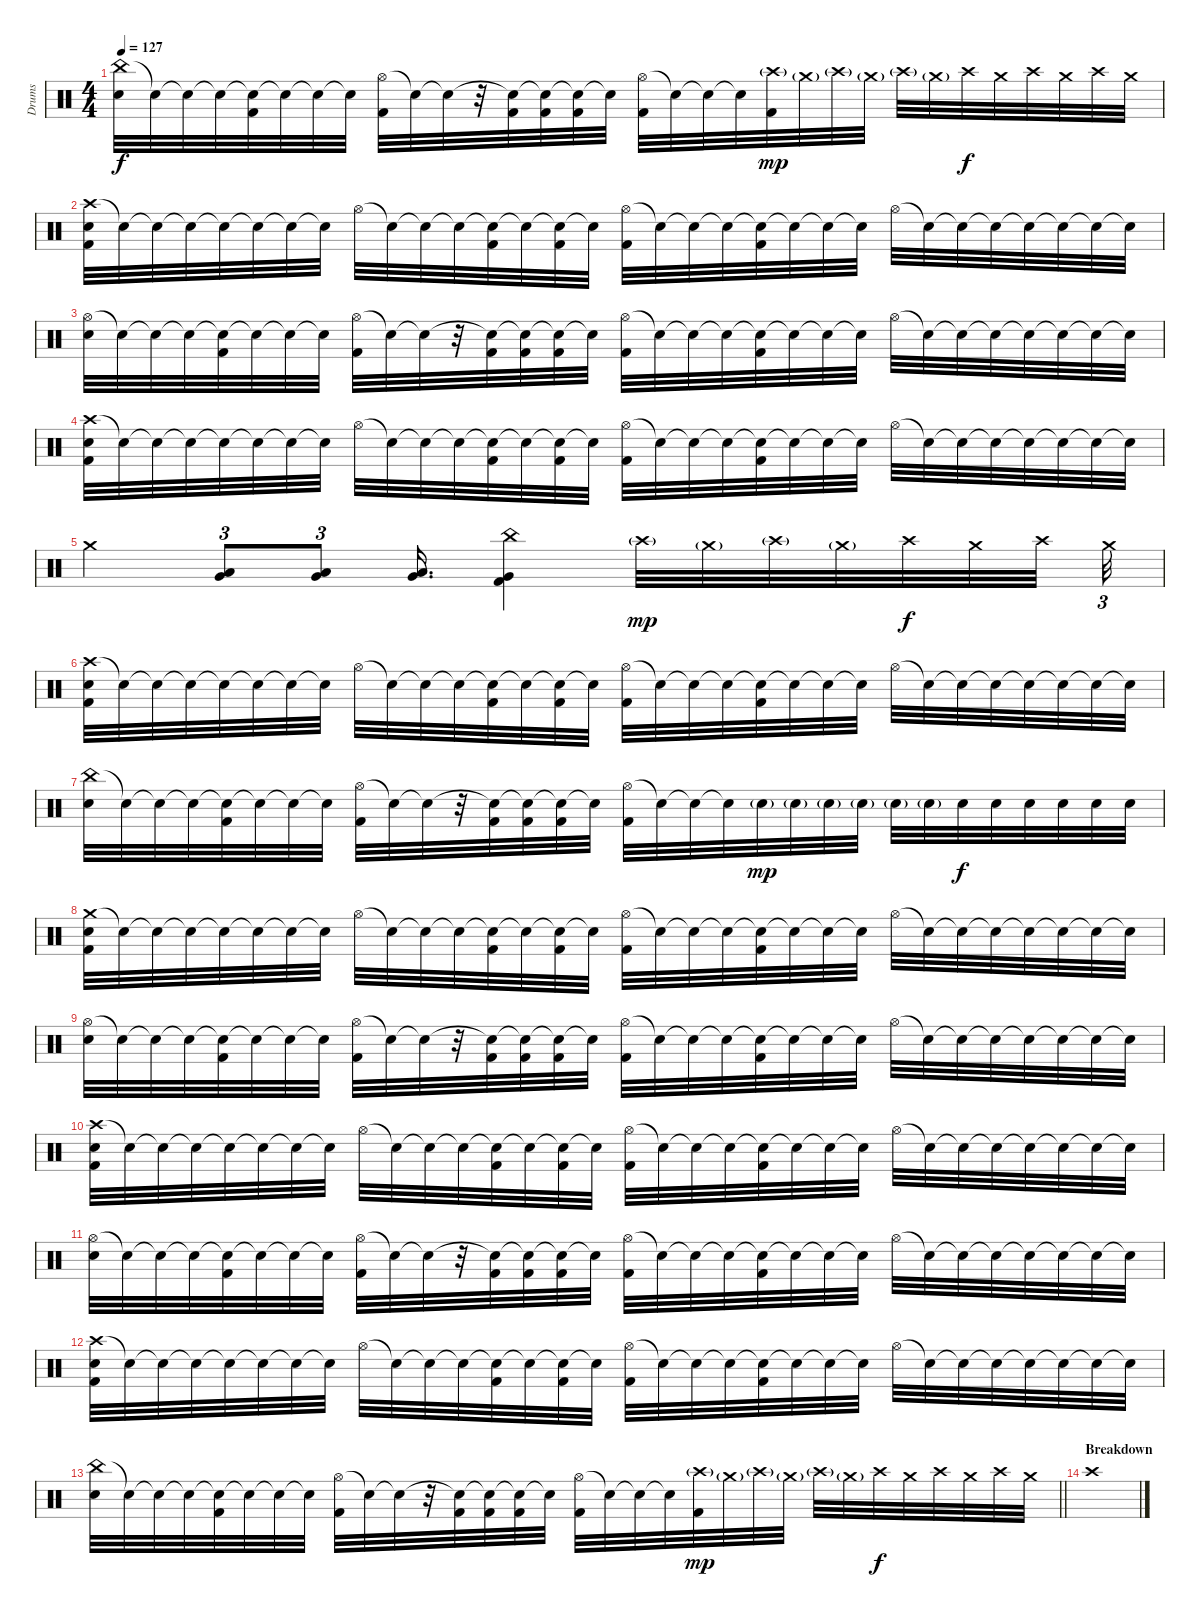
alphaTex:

\track ("Drums" "Drums") {instrument percussion}
\staff {score}
\articulation defaults
\ts (4 4)
\tempo 127
\clef neutral
\ks c
("China (hit)" "Snare (hit) 2").32{dy f} "Snare (hit)"{t}.32 "Snare (hit)"{t}.32 "Snare (hit)"{t}.32 ("Snare (hit)"{t} "Kick (hit) 2").32 "Snare (hit)"{t}.32 "Snare (hit)"{t}.32 "Snare (hit)"{t}.32 ("Hi-Hat (open)" "Kick (hit) 2").32 "Snare (hit)"{t}.32 "Snare (hit)"{t}.32 r.32 ("Snare (hit)"{t} "Kick (hit) 2").32 ("Snare (hit)"{t} "Kick (hit) 2").32 ("Snare (hit)"{t} "Kick (hit) 2").32 "Snare (hit)"{t}.32 ("Hi-Hat (open)" "Kick (hit) 2").32 "Snare (hit)"{t}.32 "Snare (hit)"{t}.32 "Snare (hit)"{t}.32 ("Crash high (hit)"{g} "Kick (hit) 2").32{dy mp} "Crash medium (hit)"{g}.32 "Crash high (hit)"{g}.32 "Crash medium (hit)"{g}.32 "Crash high (hit)"{g}.32 "Crash medium (hit)"{g}.32 "Crash high (hit)".32{dy f} "Crash medium (hit)".32 "Crash high (hit)".32 "Crash medium (hit)".32 "Crash high (hit)".32 "Crash medium (hit)".32 |
("Crash high (hit)" "Snare (hit) 2" "Kick (hit) 2").32 "Snare (hit)"{t}.32 "Snare (hit)"{t}.32 "Snare (hit)"{t}.32 "Snare (hit)"{t}.32 "Snare (hit)"{t}.32 "Snare (hit)"{t}.32 "Snare (hit)"{t}.32 "Hi-Hat (open)".32 "Snare (hit)"{t}.32 "Snare (hit)"{t}.32 "Snare (hit)"{t}.32 ("Snare (hit)"{t} "Kick (hit) 2").32 "Snare (hit)"{t}.32 ("Snare (hit)"{t} "Kick (hit) 2").32 "Snare (hit)"{t}.32 ("Hi-Hat (open)" "Kick (hit) 2").32 "Snare (hit)"{t}.32 "Snare (hit)"{t}.32 "Snare (hit)"{t}.32 ("Snare (hit)"{t} "Kick (hit) 2").32 "Snare (hit)"{t}.32 "Snare (hit)"{t}.32 "Snare (hit)"{t}.32 "Hi-Hat (open)".32 "Snare (hit)"{t}.32 "Snare (hit)"{t}.32 "Snare (hit)"{t}.32 "Snare (hit)"{t}.32 "Snare (hit)"{t}.32 "Snare (hit)"{t}.32 "Snare (hit)"{t}.32 |
("Hi-Hat (open)" "Snare (hit) 2").32 "Snare (hit)"{t}.32 "Snare (hit)"{t}.32 "Snare (hit)"{t}.32 ("Snare (hit)"{t} "Kick (hit) 2").32 "Snare (hit)"{t}.32 "Snare (hit)"{t}.32 "Snare (hit)"{t}.32 ("Hi-Hat (open)" "Kick (hit) 2").32 "Snare (hit)"{t}.32 "Snare (hit)"{t}.32 r.32 ("Snare (hit)"{t} "Kick (hit) 2").32 ("Snare (hit)"{t} "Kick (hit) 2").32 ("Snare (hit)"{t} "Kick (hit) 2").32 "Snare (hit)"{t}.32 ("Hi-Hat (open)" "Kick (hit) 2").32 "Snare (hit)"{t}.32 "Snare (hit)"{t}.32 "Snare (hit)"{t}.32 ("Snare (hit)"{t} "Kick (hit) 2").32 "Snare (hit)"{t}.32 "Snare (hit)"{t}.32 "Snare (hit)"{t}.32 "Hi-Hat (open)".32 "Snare (hit)"{t}.32 "Snare (hit)"{t}.32 "Snare (hit)"{t}.32 "Snare (hit)"{t}.32 "Snare (hit)"{t}.32 "Snare (hit)"{t}.32 "Snare (hit)"{t}.32 |
("Crash high (hit)" "Snare (hit) 2" "Kick (hit) 2").32 "Snare (hit)"{t}.32 "Snare (hit)"{t}.32 "Snare (hit)"{t}.32 "Snare (hit)"{t}.32 "Snare (hit)"{t}.32 "Snare (hit)"{t}.32 "Snare (hit)"{t}.32 "Hi-Hat (open)".32 "Snare (hit)"{t}.32 "Snare (hit)"{t}.32 "Snare (hit)"{t}.32 ("Snare (hit)"{t} "Kick (hit) 2").32 "Snare (hit)"{t}.32 ("Snare (hit)"{t} "Kick (hit) 2").32 "Snare (hit)"{t}.32 ("Hi-Hat (open)" "Kick (hit) 2").32 "Snare (hit)"{t}.32 "Snare (hit)"{t}.32 "Snare (hit)"{t}.32 ("Snare (hit)"{t} "Kick (hit) 2").32 "Snare (hit)"{t}.32 "Snare (hit)"{t}.32 "Snare (hit)"{t}.32 "Hi-Hat (open)".32 "Snare (hit)"{t}.32 "Snare (hit)"{t}.32 "Snare (hit)"{t}.32 "Snare (hit)"{t}.32 "Snare (hit)"{t}.32 "Snare (hit)"{t}.32 "Snare (hit)"{t}.32 |
"Crash medium (hit)".4 ("Low Tom (hit)" "Very Low Tom (hit)").8{tu (3 2)} ("Low Tom (hit)" "Very Low Tom (hit)").8{tu (3 2)} ("Low Tom (hit)" "Very Low Tom (hit)").16{d} ("China (hit)" "Very Low Tom (hit)" "Kick (hit) 2").4 "Crash high (hit)"{g}.32{dy mp} "Crash medium (hit)"{g}.32 "Crash high (hit)"{g}.32 "Crash medium (hit)"{g}.32 "Crash high (hit)".32{dy f} "Crash medium (hit)".32 "Crash high (hit)".32{beam splitsecondary} "Crash medium (hit)".32{tu (3 2)} |
("Crash high (hit)" "Snare (hit) 2" "Kick (hit) 2").32 "Snare (hit)"{t}.32 "Snare (hit)"{t}.32 "Snare (hit)"{t}.32 "Snare (hit)"{t}.32 "Snare (hit)"{t}.32 "Snare (hit)"{t}.32 "Snare (hit)"{t}.32 "Hi-Hat (open)".32 "Snare (hit)"{t}.32 "Snare (hit)"{t}.32 "Snare (hit)"{t}.32 ("Snare (hit)"{t} "Kick (hit) 2").32 "Snare (hit)"{t}.32 ("Snare (hit)"{t} "Kick (hit) 2").32 "Snare (hit)"{t}.32 ("Hi-Hat (open)" "Kick (hit) 2").32 "Snare (hit)"{t}.32 "Snare (hit)"{t}.32 "Snare (hit)"{t}.32 ("Snare (hit)"{t} "Kick (hit) 2").32 "Snare (hit)"{t}.32 "Snare (hit)"{t}.32 "Snare (hit)"{t}.32 "Hi-Hat (open)".32 "Snare (hit)"{t}.32 "Snare (hit)"{t}.32 "Snare (hit)"{t}.32 "Snare (hit)"{t}.32 "Snare (hit)"{t}.32 "Snare (hit)"{t}.32 "Snare (hit)"{t}.32 |
("China (hit)" "Snare (hit) 2").32 "Snare (hit)"{t}.32 "Snare (hit)"{t}.32 "Snare (hit)"{t}.32 ("Snare (hit)"{t} "Kick (hit) 2").32 "Snare (hit)"{t}.32 "Snare (hit)"{t}.32 "Snare (hit)"{t}.32 ("Hi-Hat (open)" "Kick (hit) 2").32 "Snare (hit)"{t}.32 "Snare (hit)"{t}.32 r.32 ("Snare (hit)"{t} "Kick (hit) 2").32 ("Snare (hit)"{t} "Kick (hit) 2").32 ("Snare (hit)"{t} "Kick (hit) 2").32 "Snare (hit)"{t}.32 ("Hi-Hat (open)" "Kick (hit) 2").32 "Snare (hit)"{t}.32 "Snare (hit)"{t}.32 "Snare (hit)"{t}.32 "Snare (hit) 2"{g}.32{dy mp} "Snare (hit) 2"{g}.32 "Snare (hit) 2"{g}.32 "Snare (hit) 2"{g}.32 "Snare (hit) 2"{g}.32 "Snare (hit) 2"{g}.32 "Snare (hit) 2".32{dy f} "Snare (hit) 2".32 "Snare (hit) 2".32 "Snare (hit) 2".32 "Snare (hit) 2".32 "Snare (hit) 2".32 |
("Crash medium (hit)" "Snare (hit) 2" "Kick (hit) 2").32 "Snare (hit)"{t}.32 "Snare (hit)"{t}.32 "Snare (hit)"{t}.32 "Snare (hit)"{t}.32 "Snare (hit)"{t}.32 "Snare (hit)"{t}.32 "Snare (hit)"{t}.32 "Hi-Hat (open)".32 "Snare (hit)"{t}.32 "Snare (hit)"{t}.32 "Snare (hit)"{t}.32 ("Snare (hit)"{t} "Kick (hit) 2").32 "Snare (hit)"{t}.32 ("Snare (hit)"{t} "Kick (hit) 2").32 "Snare (hit)"{t}.32 ("Hi-Hat (open)" "Kick (hit) 2").32 "Snare (hit)"{t}.32 "Snare (hit)"{t}.32 "Snare (hit)"{t}.32 ("Snare (hit)"{t} "Kick (hit) 2").32 "Snare (hit)"{t}.32 "Snare (hit)"{t}.32 "Snare (hit)"{t}.32 "Hi-Hat (open)".32 "Snare (hit)"{t}.32 "Snare (hit)"{t}.32 "Snare (hit)"{t}.32 "Snare (hit)"{t}.32 "Snare (hit)"{t}.32 "Snare (hit)"{t}.32 "Snare (hit)"{t}.32 |
("Hi-Hat (open)" "Snare (hit) 2").32 "Snare (hit)"{t}.32 "Snare (hit)"{t}.32 "Snare (hit)"{t}.32 ("Snare (hit)"{t} "Kick (hit) 2").32 "Snare (hit)"{t}.32 "Snare (hit)"{t}.32 "Snare (hit)"{t}.32 ("Hi-Hat (open)" "Kick (hit) 2").32 "Snare (hit)"{t}.32 "Snare (hit)"{t}.32 r.32 ("Snare (hit)"{t} "Kick (hit) 2").32 ("Snare (hit)"{t} "Kick (hit) 2").32 ("Snare (hit)"{t} "Kick (hit) 2").32 "Snare (hit)"{t}.32 ("Hi-Hat (open)" "Kick (hit) 2").32 "Snare (hit)"{t}.32 "Snare (hit)"{t}.32 "Snare (hit)"{t}.32 ("Snare (hit)"{t} "Kick (hit) 2").32 "Snare (hit)"{t}.32 "Snare (hit)"{t}.32 "Snare (hit)"{t}.32 "Hi-Hat (open)".32 "Snare (hit)"{t}.32 "Snare (hit)"{t}.32 "Snare (hit)"{t}.32 "Snare (hit)"{t}.32 "Snare (hit)"{t}.32 "Snare (hit)"{t}.32 "Snare (hit)"{t}.32 |
("Crash high (hit)" "Snare (hit) 2" "Kick (hit) 2").32 "Snare (hit)"{t}.32 "Snare (hit)"{t}.32 "Snare (hit)"{t}.32 "Snare (hit)"{t}.32 "Snare (hit)"{t}.32 "Snare (hit)"{t}.32 "Snare (hit)"{t}.32 "Hi-Hat (open)".32 "Snare (hit)"{t}.32 "Snare (hit)"{t}.32 "Snare (hit)"{t}.32 ("Snare (hit)"{t} "Kick (hit) 2").32 "Snare (hit)"{t}.32 ("Snare (hit)"{t} "Kick (hit) 2").32 "Snare (hit)"{t}.32 ("Hi-Hat (open)" "Kick (hit) 2").32 "Snare (hit)"{t}.32 "Snare (hit)"{t}.32 "Snare (hit)"{t}.32 ("Snare (hit)"{t} "Kick (hit) 2").32 "Snare (hit)"{t}.32 "Snare (hit)"{t}.32 "Snare (hit)"{t}.32 "Hi-Hat (open)".32 "Snare (hit)"{t}.32 "Snare (hit)"{t}.32 "Snare (hit)"{t}.32 "Snare (hit)"{t}.32 "Snare (hit)"{t}.32 "Snare (hit)"{t}.32 "Snare (hit)"{t}.32 |
("Hi-Hat (open)" "Snare (hit) 2").32 "Snare (hit)"{t}.32 "Snare (hit)"{t}.32 "Snare (hit)"{t}.32 ("Snare (hit)"{t} "Kick (hit) 2").32 "Snare (hit)"{t}.32 "Snare (hit)"{t}.32 "Snare (hit)"{t}.32 ("Hi-Hat (open)" "Kick (hit) 2").32 "Snare (hit)"{t}.32 "Snare (hit)"{t}.32 r.32 ("Snare (hit)"{t} "Kick (hit) 2").32 ("Snare (hit)"{t} "Kick (hit) 2").32 ("Snare (hit)"{t} "Kick (hit) 2").32 "Snare (hit)"{t}.32 ("Hi-Hat (open)" "Kick (hit) 2").32 "Snare (hit)"{t}.32 "Snare (hit)"{t}.32 "Snare (hit)"{t}.32 ("Snare (hit)"{t} "Kick (hit) 2").32 "Snare (hit)"{t}.32 "Snare (hit)"{t}.32 "Snare (hit)"{t}.32 "Hi-Hat (open)".32 "Snare (hit)"{t}.32 "Snare (hit)"{t}.32 "Snare (hit)"{t}.32 "Snare (hit)"{t}.32 "Snare (hit)"{t}.32 "Snare (hit)"{t}.32 "Snare (hit)"{t}.32 |
("Crash high (hit)" "Snare (hit) 2" "Kick (hit) 2").32 "Snare (hit)"{t}.32 "Snare (hit)"{t}.32 "Snare (hit)"{t}.32 "Snare (hit)"{t}.32 "Snare (hit)"{t}.32 "Snare (hit)"{t}.32 "Snare (hit)"{t}.32 "Hi-Hat (open)".32 "Snare (hit)"{t}.32 "Snare (hit)"{t}.32 "Snare (hit)"{t}.32 ("Snare (hit)"{t} "Kick (hit) 2").32 "Snare (hit)"{t}.32 ("Snare (hit)"{t} "Kick (hit) 2").32 "Snare (hit)"{t}.32 ("Hi-Hat (open)" "Kick (hit) 2").32 "Snare (hit)"{t}.32 "Snare (hit)"{t}.32 "Snare (hit)"{t}.32 ("Snare (hit)"{t} "Kick (hit) 2").32 "Snare (hit)"{t}.32 "Snare (hit)"{t}.32 "Snare (hit)"{t}.32 "Hi-Hat (open)".32 "Snare (hit)"{t}.32 "Snare (hit)"{t}.32 "Snare (hit)"{t}.32 "Snare (hit)"{t}.32 "Snare (hit)"{t}.32 "Snare (hit)"{t}.32 "Snare (hit)"{t}.32 |
\barLineRight lightlight
("China (hit)" "Snare (hit) 2").32 "Snare (hit)"{t}.32 "Snare (hit)"{t}.32 "Snare (hit)"{t}.32 ("Snare (hit)"{t} "Kick (hit) 2").32 "Snare (hit)"{t}.32 "Snare (hit)"{t}.32 "Snare (hit)"{t}.32 ("Hi-Hat (open)" "Kick (hit) 2").32 "Snare (hit)"{t}.32 "Snare (hit)"{t}.32 r.32 ("Snare (hit)"{t} "Kick (hit) 2").32 ("Snare (hit)"{t} "Kick (hit) 2").32 ("Snare (hit)"{t} "Kick (hit) 2").32 "Snare (hit)"{t}.32 ("Hi-Hat (open)" "Kick (hit) 2").32 "Snare (hit)"{t}.32 "Snare (hit)"{t}.32 "Snare (hit)"{t}.32 ("Crash high (hit)"{g} "Kick (hit) 2").32{dy mp} "Crash medium (hit)"{g}.32 "Crash high (hit)"{g}.32 "Crash medium (hit)"{g}.32 "Crash high (hit)"{g}.32 "Crash medium (hit)"{g}.32 "Crash high (hit)".32{dy f} "Crash medium (hit)".32 "Crash high (hit)".32 "Crash medium (hit)".32 "Crash high (hit)".32 "Crash medium (hit)".32 |
\section ("" "Breakdown")
"Crash high (hit)".1
